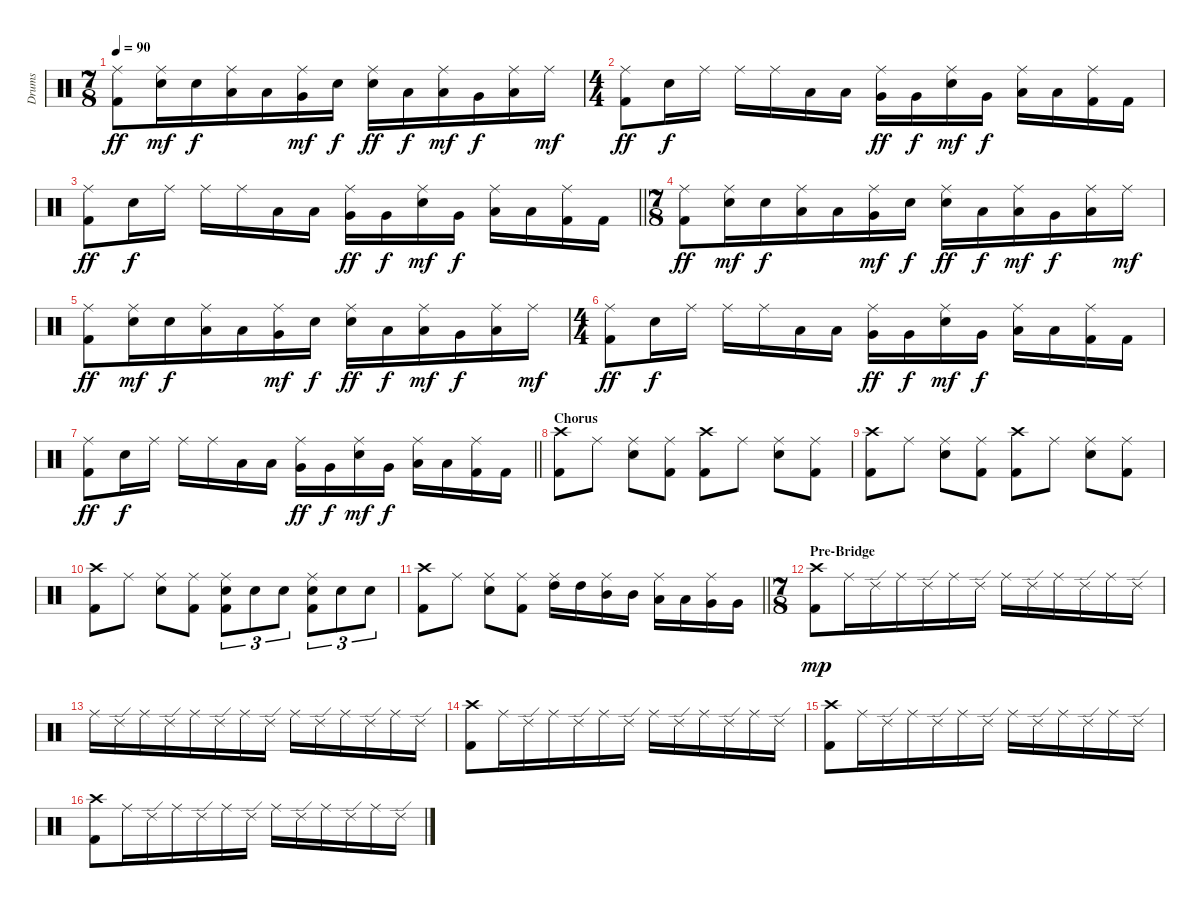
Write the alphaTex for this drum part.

\track ("Drums" "Drums") {instrument percussion}
\staff {score}
\articulation defaults
\ts (7 8)
\tempo 90
\clef neutral
\ks c
("Ride (middle)" "Kick (hit) 2").8{dy ff} ("Ride (middle)" "Electric Snare (hit)").16{dy mf} "Electric Snare (hit)".16{dy f} ("Ride (middle)" "Low Tom (hit)").16 "Low Tom (hit)".16 ("Ride (middle)" "Very Low Tom (hit)").16{dy mf} "Electric Snare (hit)".16{dy f} ("Ride (middle)" "Electric Snare (hit)").16{dy ff} "Low Tom (hit)".16{dy f} ("Ride (middle)" "Low Tom (hit)").16{dy mf} "Very Low Tom (hit)".16{dy f} ("Ride (middle)" "Low Tom (hit)").16 "Ride (middle)".16{dy mf} |
\ts (4 4)
("Ride (middle)" "Kick (hit) 2").8{dy ff} "Electric Snare (hit)".16{dy f} "Ride (middle)".16 "Ride (middle)".16 "Ride (middle)".16 "Low Tom (hit)".16 "Low Tom (hit)".16 ("Ride (middle)" "Very Low Tom (hit)").16{dy ff} "Very Low Tom (hit)".16{dy f} ("Ride (middle)" "Electric Snare (hit)").16{dy mf} "Very Low Tom (hit)".16{dy f} ("Ride (middle)" "Low Floor Tom (hit)").16 "Low Floor Tom (hit)".16 ("Ride (middle)" "Kick (hit) 2").16 "Kick (hit) 2".16 |
\barLineRight lightlight
("Ride (middle)" "Kick (hit) 2").8{dy ff} "Electric Snare (hit)".16{dy f} "Ride (middle)".16 "Ride (middle)".16 "Ride (middle)".16 "Low Tom (hit)".16 "Low Tom (hit)".16 ("Ride (middle)" "Very Low Tom (hit)").16{dy ff} "Very Low Tom (hit)".16{dy f} ("Ride (middle)" "Electric Snare (hit)").16{dy mf} "Very Low Tom (hit)".16{dy f} ("Ride (middle)" "Low Floor Tom (hit)").16 "Low Floor Tom (hit)".16 ("Ride (middle)" "Kick (hit) 2").16 "Kick (hit) 2".16 |
\ts (7 8)
("Ride (middle)" "Kick (hit) 2").8{dy ff} ("Ride (middle)" "Electric Snare (hit)").16{dy mf} "Electric Snare (hit)".16{dy f} ("Ride (middle)" "Low Tom (hit)").16 "Low Tom (hit)".16 ("Ride (middle)" "Very Low Tom (hit)").16{dy mf} "Electric Snare (hit)".16{dy f} ("Ride (middle)" "Electric Snare (hit)").16{dy ff} "Low Tom (hit)".16{dy f} ("Ride (middle)" "Low Tom (hit)").16{dy mf} "Very Low Tom (hit)".16{dy f} ("Ride (middle)" "Low Tom (hit)").16 "Ride (middle)".16{dy mf} |
("Ride (middle)" "Kick (hit) 2").8{dy ff} ("Ride (middle)" "Electric Snare (hit)").16{dy mf} "Electric Snare (hit)".16{dy f} ("Ride (middle)" "Low Tom (hit)").16 "Low Tom (hit)".16 ("Ride (middle)" "Very Low Tom (hit)").16{dy mf} "Electric Snare (hit)".16{dy f} ("Ride (middle)" "Electric Snare (hit)").16{dy ff} "Low Tom (hit)".16{dy f} ("Ride (middle)" "Low Tom (hit)").16{dy mf} "Very Low Tom (hit)".16{dy f} ("Ride (middle)" "Low Tom (hit)").16 "Ride (middle)".16{dy mf} |
\ts (4 4)
("Ride (middle)" "Kick (hit) 2").8{dy ff} "Electric Snare (hit)".16{dy f} "Ride (middle)".16 "Ride (middle)".16 "Ride (middle)".16 "Low Tom (hit)".16 "Low Tom (hit)".16 ("Ride (middle)" "Very Low Tom (hit)").16{dy ff} "Very Low Tom (hit)".16{dy f} ("Ride (middle)" "Electric Snare (hit)").16{dy mf} "Very Low Tom (hit)".16{dy f} ("Ride (middle)" "Low Floor Tom (hit)").16 "Low Floor Tom (hit)".16 ("Ride (middle)" "Kick (hit) 2").16 "Kick (hit) 2".16 |
\barLineRight lightlight
("Ride (middle)" "Kick (hit) 2").8{dy ff} "Electric Snare (hit)".16{dy f} "Ride (middle)".16 "Ride (middle)".16 "Ride (middle)".16 "Low Tom (hit)".16 "Low Tom (hit)".16 ("Ride (middle)" "Very Low Tom (hit)").16{dy ff} "Very Low Tom (hit)".16{dy f} ("Ride (middle)" "Electric Snare (hit)").16{dy mf} "Very Low Tom (hit)".16{dy f} ("Ride (middle)" "Low Floor Tom (hit)").16 "Low Floor Tom (hit)".16 ("Ride (middle)" "Kick (hit) 2").16 "Kick (hit) 2".16 |
\section ("" "Chorus")
("Crash high (hit)" "Kick (hit) 2").8 "Ride (middle)".8 ("Ride (middle)" "Electric Snare (hit)").8 ("Ride (middle)" "Kick (hit) 2").8 ("Crash high (hit)" "Kick (hit) 2").8 "Ride (middle)".8 ("Ride (middle)" "Electric Snare (hit)").8 ("Ride (middle)" "Kick (hit) 2").8 |
("Crash high (hit)" "Kick (hit) 2").8 "Ride (middle)".8 ("Ride (middle)" "Electric Snare (hit)").8 ("Ride (middle)" "Kick (hit) 2").8 ("Crash high (hit)" "Kick (hit) 2").8 "Ride (middle)".8 ("Ride (middle)" "Electric Snare (hit)").8 ("Ride (middle)" "Kick (hit) 2").8 |
("Crash high (hit)" "Kick (hit) 2").8 "Ride (middle)".8 ("Ride (middle)" "Electric Snare (hit)").8 ("Ride (middle)" "Kick (hit) 2").8 ("Ride (middle)" "Electric Snare (hit)" "Kick (hit) 2").8{tu (3 2)} "Electric Snare (hit)".8{tu (3 2)} "Electric Snare (hit)".8{tu (3 2)} ("Ride (middle)" "Electric Snare (hit)" "Kick (hit) 2").8{tu (3 2)} "Electric Snare (hit)".8{tu (3 2)} "Electric Snare (hit)".8{tu (3 2)} |
\barLineRight lightlight
("Crash high (hit)" "Kick (hit) 2").8 "Ride (middle)".8 ("Ride (middle)" "Electric Snare (hit)").8 ("Ride (middle)" "Kick (hit) 2").8 ("Ride (middle)" "High Tom (hit)").16 "High Tom (hit)".16 ("Ride (middle)" "Mid Tom (hit)").16 "Mid Tom (hit)".16 ("Ride (middle)" "Low Tom (hit)").16 "Low Tom (hit)".16 ("Ride (middle)" "Very Low Tom (hit)").16 "Very Low Tom (hit)".16 |
\ts (7 8)
\section ("" "Pre-Bridge")
("Crash high (hit)" "Kick (hit) 2").8{dy mp} "Ride (middle)".16 "Ride (edge) 2".16 "Ride (middle)".16 "Ride (edge) 2".16 "Ride (middle)".16 "Ride (edge) 2".16 "Ride (middle)".16 "Ride (edge) 2".16 "Ride (middle)".16 "Ride (edge) 2".16 "Ride (middle)".16 "Ride (edge) 2".16 |
"Ride (middle)".16 "Ride (edge) 2".16 "Ride (middle)".16 "Ride (edge) 2".16 "Ride (middle)".16 "Ride (edge) 2".16 "Ride (middle)".16 "Ride (edge) 2".16 "Ride (middle)".16 "Ride (edge) 2".16 "Ride (middle)".16 "Ride (edge) 2".16 "Ride (middle)".16 "Ride (edge) 2".16 |
("Crash high (hit)" "Kick (hit) 2").8 "Ride (middle)".16 "Ride (edge) 2".16 "Ride (middle)".16 "Ride (edge) 2".16 "Ride (middle)".16 "Ride (edge) 2".16 "Ride (middle)".16 "Ride (edge) 2".16 "Ride (middle)".16 "Ride (edge) 2".16 "Ride (middle)".16 "Ride (edge) 2".16 |
("Crash high (hit)" "Kick (hit) 2").8 "Ride (middle)".16 "Ride (edge) 2".16 "Ride (middle)".16 "Ride (edge) 2".16 "Ride (middle)".16 "Ride (edge) 2".16 "Ride (middle)".16 "Ride (edge) 2".16 "Ride (middle)".16 "Ride (edge) 2".16 "Ride (middle)".16 "Ride (edge) 2".16 |
("Crash high (hit)" "Kick (hit) 2").8 "Ride (middle)".16 "Ride (edge) 2".16 "Ride (middle)".16 "Ride (edge) 2".16 "Ride (middle)".16 "Ride (edge) 2".16 "Ride (middle)".16 "Ride (edge) 2".16 "Ride (middle)".16 "Ride (edge) 2".16 "Ride (middle)".16 "Ride (edge) 2".16
